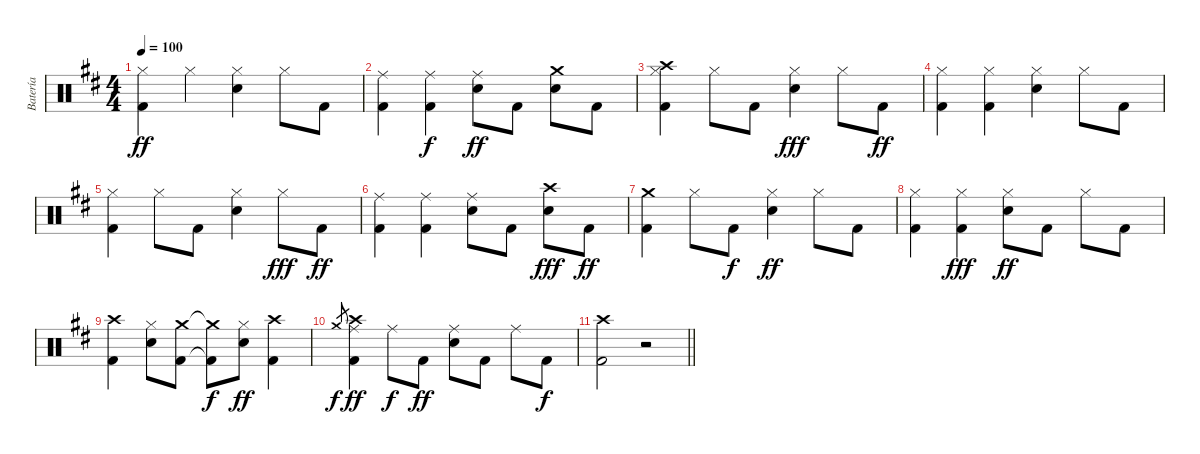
\track ("Batería" "Batería") {instrument percussion}
\staff {score}
\articulation defaults
\ts (4 4)
\tempo 100
\clef neutral
\ks bminor
("Hi-Hat (closed)" "Kick (hit) 2").4{dy ff} "Hi-Hat (closed)".4 ("Hi-Hat (closed)" "Electric Snare (hit)").4 "Hi-Hat (closed)".8 "Kick (hit) 2".8 |
("Ride (middle)" "Kick (hit) 2").4 ("Ride (middle)" "Kick (hit) 2").4{dy f} ("Electric Snare (hit)" "Ride (middle)").8{dy ff} "Kick (hit) 2".8 ("Crash medium (hit)" "Electric Snare (hit)").8 "Kick (hit) 2".8 |
("Crash high (hit)" "Hi-Hat (closed)" "Kick (hit) 2").4 "Hi-Hat (closed)".8 "Kick (hit) 2".8 ("Electric Snare (hit)" "Hi-Hat (closed)").4{dy fff} "Hi-Hat (closed)".8 "Kick (hit) 2".8{dy ff} |
("Hi-Hat (closed)" "Kick (hit) 2").4 ("Hi-Hat (closed)" "Kick (hit) 2").4 ("Hi-Hat (closed)" "Electric Snare (hit)").4 "Hi-Hat (closed)".8 "Kick (hit) 2".8 |
("Hi-Hat (closed)" "Kick (hit) 2").4 "Hi-Hat (closed)".8 "Kick (hit) 2".8 ("Hi-Hat (closed)" "Electric Snare (hit)").4 "Hi-Hat (closed)".8{dy fff} "Kick (hit) 2".8{dy ff} |
("Ride (middle)" "Kick (hit) 2").4 ("Ride (middle)" "Kick (hit) 2").4 ("Ride (middle)" "Electric Snare (hit)").8 "Kick (hit) 2".8 ("Crash high (hit)" "Electric Snare (hit)").8{dy fff} "Kick (hit) 2".8{dy ff} |
("Crash medium (hit)" "Kick (hit) 2").4 "Hi-Hat (closed)".8 "Kick (hit) 2".8{dy f} ("Hi-Hat (closed)" "Electric Snare (hit)").4{dy ff} "Hi-Hat (closed)".8 "Kick (hit) 2".8 |
("Hi-Hat (closed)" "Kick (hit) 2").4 ("Hi-Hat (closed)" "Kick (hit) 2").4{dy fff} ("Hi-Hat (closed)" "Electric Snare (hit)").8{dy ff} "Kick (hit) 2".8 "Hi-Hat (closed)".8 "Kick (hit) 2".8 |
("Crash high (hit)" "Kick (hit) 2").4 ("Hi-Hat (closed)" "Electric Snare (hit)").8 ("Crash medium (hit)" "Kick (hit) 2").8 ("Crash medium (hit)"{t} "Kick (hit) 2"{t}).8{dy f} ("Hi-Hat (closed)" "Electric Snare (hit)").8{dy ff} ("Crash high (hit)" "Kick (hit) 2").4 |
"Crash medium (hit)".8{gr dy f} ("Crash high (hit)" "Ride (middle)" "Kick (hit) 2").4{dy ff} "Ride (middle)".8{dy f} "Kick (hit) 2".8{dy ff} ("Ride (middle)" "Electric Snare (hit)").8 "Kick (hit) 2".8 "Ride (middle)".8 "Kick (hit) 2".8{dy f} |
\barLineRight lightlight
("Crash high (hit)" "Kick (hit) 2").2 r.2
